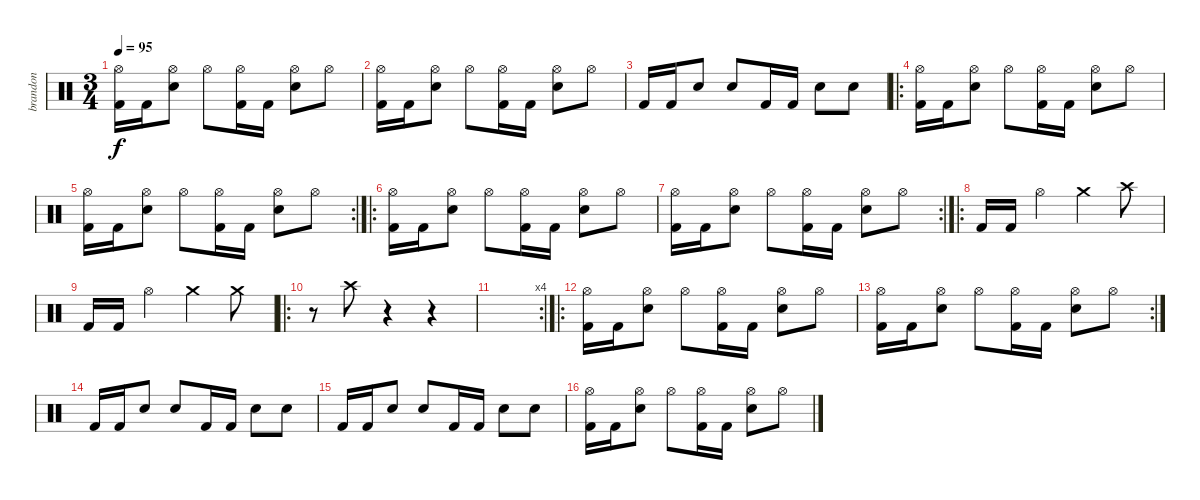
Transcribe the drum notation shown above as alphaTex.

\track ("brandon" "brandon") {instrument percussion}
\staff {score}
\articulation defaults
\ts (3 4)
\tempo 95
\clef neutral
\ks c
("Hi-Hat (open)" "Kick (hit) 2").16{dy f} "Kick (hit) 2".16 ("Hi-Hat (open)" "Snare (hit) 2").8 "Hi-Hat (open)".8 ("Hi-Hat (open)" "Kick (hit) 2").16 "Kick (hit) 2".16 ("Hi-Hat (open)" "Snare (hit) 2").8 "Hi-Hat (open)".8 |
("Hi-Hat (open)" "Kick (hit) 2").16 "Kick (hit) 2".16 ("Hi-Hat (open)" "Snare (hit) 2").8 "Hi-Hat (open)".8 ("Hi-Hat (open)" "Kick (hit) 2").16 "Kick (hit) 2".16 ("Hi-Hat (open)" "Snare (hit) 2").8 "Hi-Hat (open)".8 |
"Kick (hit) 2".16 "Kick (hit) 2".16 "Snare (hit) 2".8 "Snare (hit) 2".8 "Kick (hit) 2".16 "Kick (hit) 2".16 "Snare (hit) 2".8 "Snare (hit) 2".8 |
\ro
("Hi-Hat (open)" "Kick (hit) 2").16 "Kick (hit) 2".16 ("Hi-Hat (open)" "Snare (hit) 2").8 "Hi-Hat (open)".8 ("Hi-Hat (open)" "Kick (hit) 2").16 "Kick (hit) 2".16 ("Hi-Hat (open)" "Snare (hit) 2").8 "Hi-Hat (open)".8 |
\rc 2
("Hi-Hat (open)" "Kick (hit) 2").16 "Kick (hit) 2".16 ("Hi-Hat (open)" "Snare (hit) 2").8 "Hi-Hat (open)".8 ("Hi-Hat (open)" "Kick (hit) 2").16 "Kick (hit) 2".16 ("Hi-Hat (open)" "Snare (hit) 2").8 "Hi-Hat (open)".8 |
\ro
("Hi-Hat (open)" "Kick (hit) 2").16 "Kick (hit) 2".16 ("Hi-Hat (open)" "Snare (hit) 2").8 "Hi-Hat (open)".8 ("Hi-Hat (open)" "Kick (hit) 2").16 "Kick (hit) 2".16 ("Hi-Hat (open)" "Snare (hit) 2").8 "Hi-Hat (open)".8 |
\rc 2
("Hi-Hat (open)" "Kick (hit) 2").16 "Kick (hit) 2".16 ("Hi-Hat (open)" "Snare (hit) 2").8 "Hi-Hat (open)".8 ("Hi-Hat (open)" "Kick (hit) 2").16 "Kick (hit) 2".16 ("Hi-Hat (open)" "Snare (hit) 2").8 "Hi-Hat (open)".8 |
\ro "Kick (hit) 2".16 "Kick (hit) 2".16 "Hi-Hat (open)".4 "Crash medium (hit)".4 "Crash high (hit)".8
|
"Kick (hit) 2".16 "Kick (hit) 2".16 "Hi-Hat (open)".4 "Crash medium (hit)".4 "Crash medium (hit)".8 |
\ro
r.8 "Crash high (hit)".8 r.4 r.4 |
\rc 4
|
\ro
("Hi-Hat (open)" "Kick (hit) 2").16 "Kick (hit) 2".16 ("Hi-Hat (open)" "Snare (hit) 2").8 "Hi-Hat (open)".8 ("Hi-Hat (open)" "Kick (hit) 2").16 "Kick (hit) 2".16 ("Hi-Hat (open)" "Snare (hit) 2").8 "Hi-Hat (open)".8 |
\rc 2
("Hi-Hat (open)" "Kick (hit) 2").16 "Kick (hit) 2".16 ("Hi-Hat (open)" "Snare (hit) 2").8 "Hi-Hat (open)".8 ("Hi-Hat (open)" "Kick (hit) 2").16 "Kick (hit) 2".16 ("Hi-Hat (open)" "Snare (hit) 2").8 "Hi-Hat (open)".8 |
"Kick (hit) 2".16 "Kick (hit) 2".16 "Snare (hit) 2".8 "Snare (hit) 2".8 "Kick (hit) 2".16 "Kick (hit) 2".16 "Snare (hit) 2".8 "Snare (hit) 2".8 |
"Kick (hit) 2".16 "Kick (hit) 2".16 "Snare (hit) 2".8 "Snare (hit) 2".8 "Kick (hit) 2".16 "Kick (hit) 2".16 "Snare (hit) 2".8 "Snare (hit) 2".8 |
("Hi-Hat (open)" "Kick (hit) 2").16 "Kick (hit) 2".16 ("Hi-Hat (open)" "Snare (hit) 2").8 "Hi-Hat (open)".8 ("Hi-Hat (open)" "Kick (hit) 2").16 "Kick (hit) 2".16 ("Hi-Hat (open)" "Snare (hit) 2").8 "Hi-Hat (open)".8
